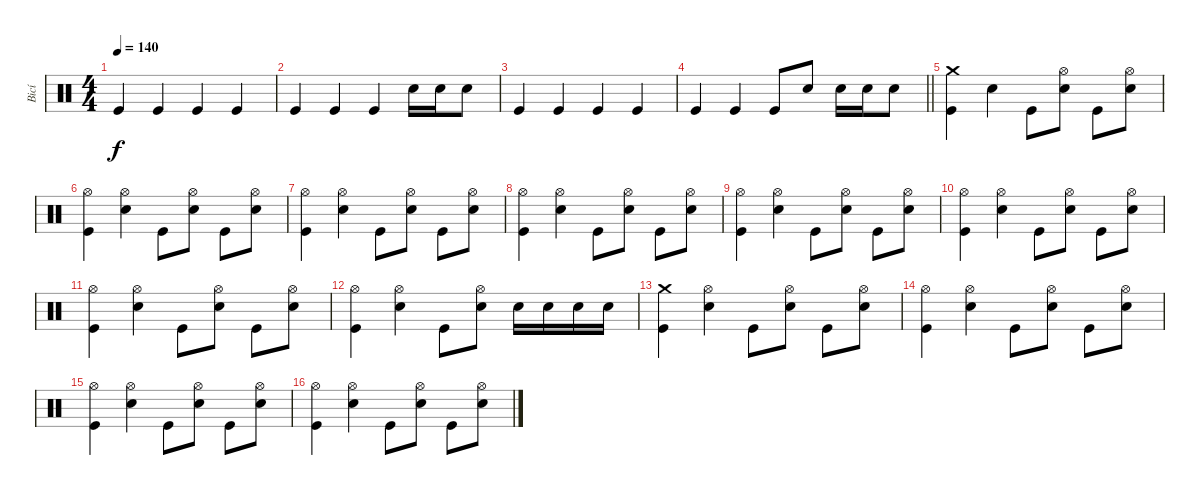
\track ("Bicí" "Bicí") {instrument percussion}
\staff {score}
\articulation defaults
\ts (4 4)
\tempo 140
\clef neutral
\ks c "Kick (hit)".4{dy f} "Kick (hit)".4 "Kick (hit)".4 "Kick (hit)".4
|
"Kick (hit)".4 "Kick (hit)".4 "Kick (hit)".4 "Electric Snare (hit)".16 "Electric Snare (hit)".16 "Electric Snare (hit)".8 |
"Kick (hit)".4 "Kick (hit)".4 "Kick (hit)".4 "Kick (hit)".4 |
\barLineRight lightlight "Kick (hit)".4 "Kick (hit)".4 "Kick (hit)".8 "Electric Snare (hit)".8 "Electric Snare (hit)".16 "Electric Snare (hit)".16 "Electric Snare (hit)".8
|
\section ("" "")
("Crash medium (hit)" "Kick (hit)").4 "Electric Snare (hit)".4 "Kick (hit)".8 ("Hi-Hat (open)" "Electric Snare (hit)").8 "Kick (hit)".8 ("Hi-Hat (open)" "Electric Snare (hit)").8 |
("Hi-Hat (open)" "Kick (hit)").4 ("Hi-Hat (open)" "Electric Snare (hit)").4 "Kick (hit)".8 ("Hi-Hat (open)" "Electric Snare (hit)").8 "Kick (hit)".8 ("Hi-Hat (open)" "Electric Snare (hit)").8 |
("Hi-Hat (open)" "Kick (hit)").4 ("Hi-Hat (open)" "Electric Snare (hit)").4 "Kick (hit)".8 ("Hi-Hat (open)" "Electric Snare (hit)").8 "Kick (hit)".8 ("Hi-Hat (open)" "Electric Snare (hit)").8 |
("Hi-Hat (open)" "Kick (hit)").4 ("Hi-Hat (open)" "Electric Snare (hit)").4 "Kick (hit)".8 ("Hi-Hat (open)" "Electric Snare (hit)").8 "Kick (hit)".8 ("Hi-Hat (open)" "Electric Snare (hit)").8 |
("Hi-Hat (open)" "Kick (hit)").4 ("Hi-Hat (open)" "Electric Snare (hit)").4 "Kick (hit)".8 ("Hi-Hat (open)" "Electric Snare (hit)").8 "Kick (hit)".8 ("Hi-Hat (open)" "Electric Snare (hit)").8 |
("Hi-Hat (open)" "Kick (hit)").4 ("Hi-Hat (open)" "Electric Snare (hit)").4 "Kick (hit)".8 ("Hi-Hat (open)" "Electric Snare (hit)").8 "Kick (hit)".8 ("Hi-Hat (open)" "Electric Snare (hit)").8 |
("Hi-Hat (open)" "Kick (hit)").4 ("Hi-Hat (open)" "Electric Snare (hit)").4 "Kick (hit)".8 ("Hi-Hat (open)" "Electric Snare (hit)").8 "Kick (hit)".8 ("Hi-Hat (open)" "Electric Snare (hit)").8 |
("Hi-Hat (open)" "Kick (hit)").4 ("Hi-Hat (open)" "Electric Snare (hit)").4 "Kick (hit)".8 ("Hi-Hat (open)" "Electric Snare (hit)").8 "Electric Snare (hit)".16 "Electric Snare (hit)".16 "Electric Snare (hit)".16 "Electric Snare (hit)".16 |
("Crash medium (hit)" "Kick (hit)").4 ("Hi-Hat (open)" "Electric Snare (hit)").4 "Kick (hit)".8 ("Hi-Hat (open)" "Electric Snare (hit)").8 "Kick (hit)".8 ("Hi-Hat (open)" "Electric Snare (hit)").8 |
("Hi-Hat (open)" "Kick (hit)").4 ("Hi-Hat (open)" "Electric Snare (hit)").4 "Kick (hit)".8 ("Hi-Hat (open)" "Electric Snare (hit)").8 "Kick (hit)".8 ("Hi-Hat (open)" "Electric Snare (hit)").8 |
("Hi-Hat (open)" "Kick (hit)").4 ("Hi-Hat (open)" "Electric Snare (hit)").4 "Kick (hit)".8 ("Hi-Hat (open)" "Electric Snare (hit)").8 "Kick (hit)".8 ("Hi-Hat (open)" "Electric Snare (hit)").8 |
("Hi-Hat (open)" "Kick (hit)").4 ("Hi-Hat (open)" "Electric Snare (hit)").4 "Kick (hit)".8 ("Hi-Hat (open)" "Electric Snare (hit)").8 "Kick (hit)".8 ("Hi-Hat (open)" "Electric Snare (hit)").8
